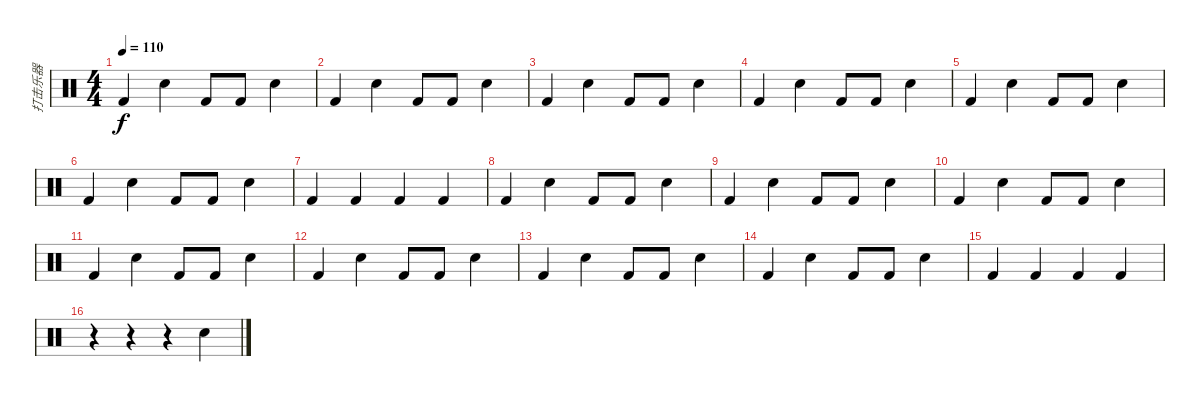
\track ("打击乐器" "打击乐器") {instrument percussion}
\staff {score}
\articulation defaults
\ts (4 4)
\tempo 110
\clef neutral
\ks c "Kick (hit) 2".4{dy f} "Electric Snare (hit)".4 "Kick (hit) 2".8 "Kick (hit) 2".8 "Electric Snare (hit)".4
|
"Kick (hit) 2".4 "Electric Snare (hit)".4 "Kick (hit) 2".8 "Kick (hit) 2".8 "Electric Snare (hit)".4 |
"Kick (hit) 2".4 "Electric Snare (hit)".4 "Kick (hit) 2".8 "Kick (hit) 2".8 "Electric Snare (hit)".4 |
"Kick (hit) 2".4 "Electric Snare (hit)".4 "Kick (hit) 2".8 "Kick (hit) 2".8 "Electric Snare (hit)".4 |
"Kick (hit) 2".4 "Electric Snare (hit)".4 "Kick (hit) 2".8 "Kick (hit) 2".8 "Electric Snare (hit)".4 |
"Kick (hit) 2".4 "Electric Snare (hit)".4 "Kick (hit) 2".8 "Kick (hit) 2".8 "Electric Snare (hit)".4 |
"Kick (hit) 2".4 "Kick (hit) 2".4 "Kick (hit) 2".4 "Kick (hit) 2".4 |
"Kick (hit) 2".4 "Electric Snare (hit)".4 "Kick (hit) 2".8 "Kick (hit) 2".8 "Electric Snare (hit)".4 |
"Kick (hit) 2".4 "Electric Snare (hit)".4 "Kick (hit) 2".8 "Kick (hit) 2".8 "Electric Snare (hit)".4 |
"Kick (hit) 2".4 "Electric Snare (hit)".4 "Kick (hit) 2".8 "Kick (hit) 2".8 "Electric Snare (hit)".4 |
"Kick (hit) 2".4 "Electric Snare (hit)".4 "Kick (hit) 2".8 "Kick (hit) 2".8 "Electric Snare (hit)".4 |
"Kick (hit) 2".4 "Electric Snare (hit)".4 "Kick (hit) 2".8 "Kick (hit) 2".8 "Electric Snare (hit)".4 |
"Kick (hit) 2".4 "Electric Snare (hit)".4 "Kick (hit) 2".8 "Kick (hit) 2".8 "Electric Snare (hit)".4 |
"Kick (hit) 2".4 "Electric Snare (hit)".4 "Kick (hit) 2".8 "Kick (hit) 2".8 "Electric Snare (hit)".4 |
"Kick (hit) 2".4 "Kick (hit) 2".4 "Kick (hit) 2".4 "Kick (hit) 2".4 |
r.4 r.4 r.4 "Electric Snare (hit)".4
